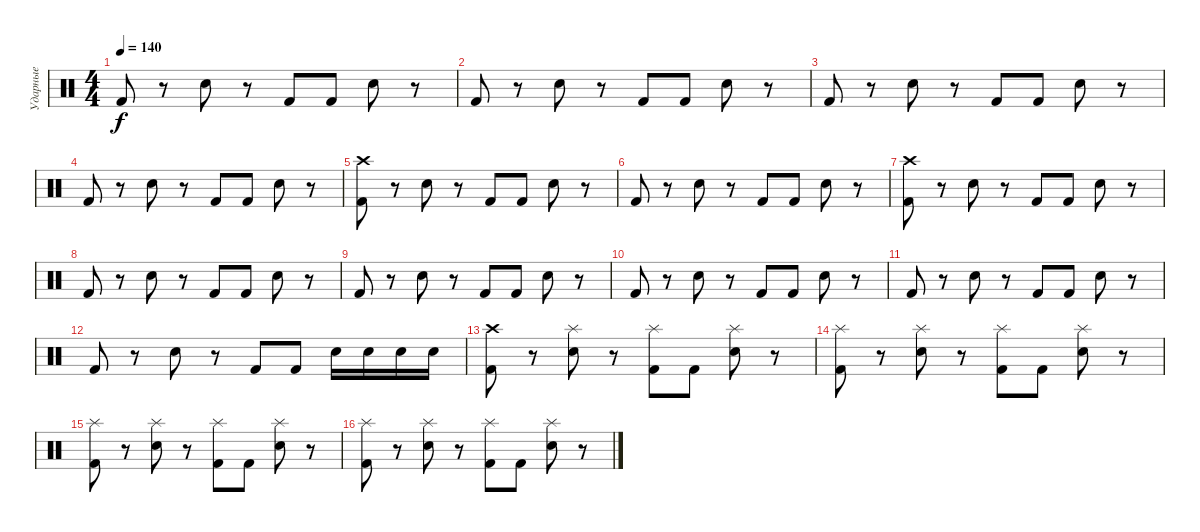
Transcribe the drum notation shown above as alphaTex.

\track ("Ударные" "Ударные") {instrument percussion}
\staff {score}
\articulation defaults
\ts (4 4)
\tempo 140
\clef neutral
\ks c "Kick (hit) 2".8{dy f}
r.8 "Electric Snare (hit)".8 r.8 "Kick (hit) 2".8 "Kick (hit) 2".8 "Electric Snare (hit)".8 r.8 |
"Kick (hit) 2".8 r.8 "Electric Snare (hit)".8 r.8 "Kick (hit) 2".8 "Kick (hit) 2".8 "Electric Snare (hit)".8 r.8 |
"Kick (hit) 2".8 r.8 "Electric Snare (hit)".8 r.8 "Kick (hit) 2".8 "Kick (hit) 2".8 "Electric Snare (hit)".8 r.8 |
"Kick (hit) 2".8 r.8 "Electric Snare (hit)".8 r.8 "Kick (hit) 2".8 "Kick (hit) 2".8 "Electric Snare (hit)".8 r.8 |
("Crash high (hit)" "Kick (hit) 2").8 r.8 "Electric Snare (hit)".8 r.8 "Kick (hit) 2".8 "Kick (hit) 2".8 "Electric Snare (hit)".8 r.8 |
"Kick (hit) 2".8 r.8 "Electric Snare (hit)".8 r.8 "Kick (hit) 2".8 "Kick (hit) 2".8 "Electric Snare (hit)".8 r.8 |
("Crash high (hit)" "Kick (hit) 2").8 r.8 "Electric Snare (hit)".8 r.8 "Kick (hit) 2".8 "Kick (hit) 2".8 "Electric Snare (hit)".8 r.8 |
"Kick (hit) 2".8 r.8 "Electric Snare (hit)".8 r.8 "Kick (hit) 2".8 "Kick (hit) 2".8 "Electric Snare (hit)".8 r.8 |
"Kick (hit) 2".8 r.8 "Electric Snare (hit)".8 r.8 "Kick (hit) 2".8 "Kick (hit) 2".8 "Electric Snare (hit)".8 r.8 |
"Kick (hit) 2".8 r.8 "Electric Snare (hit)".8 r.8 "Kick (hit) 2".8 "Kick (hit) 2".8 "Electric Snare (hit)".8 r.8 |
"Kick (hit) 2".8 r.8 "Electric Snare (hit)".8 r.8 "Kick (hit) 2".8 "Kick (hit) 2".8 "Electric Snare (hit)".8 r.8 |
"Kick (hit) 2".8 r.8 "Electric Snare (hit)".8 r.8 "Kick (hit) 2".8 "Kick (hit) 2".8 "Electric Snare (hit)".16 "Electric Snare (hit)".16 "Electric Snare (hit)".16 "Electric Snare (hit)".16 |
("Crash high (hit)" "Kick (hit) 2").8 r.8 ("Splash (hit)" "Electric Snare (hit)").8 r.8 ("Splash (hit)" "Kick (hit) 2").8 "Kick (hit) 2".8 ("Splash (hit)" "Electric Snare (hit)").8 r.8 |
("Splash (hit)" "Kick (hit) 2").8 r.8 ("Splash (hit)" "Electric Snare (hit)").8 r.8 ("Splash (hit)" "Kick (hit) 2").8 "Kick (hit) 2".8 ("Splash (hit)" "Electric Snare (hit)").8 r.8 |
("Splash (hit)" "Kick (hit) 2").8 r.8 ("Splash (hit)" "Electric Snare (hit)").8 r.8 ("Splash (hit)" "Kick (hit) 2").8 "Kick (hit) 2".8 ("Splash (hit)" "Electric Snare (hit)").8 r.8 |
("Splash (hit)" "Kick (hit) 2").8 r.8 ("Splash (hit)" "Electric Snare (hit)").8 r.8 ("Splash (hit)" "Kick (hit) 2").8 "Kick (hit) 2".8 ("Splash (hit)" "Electric Snare (hit)").8 r.8
